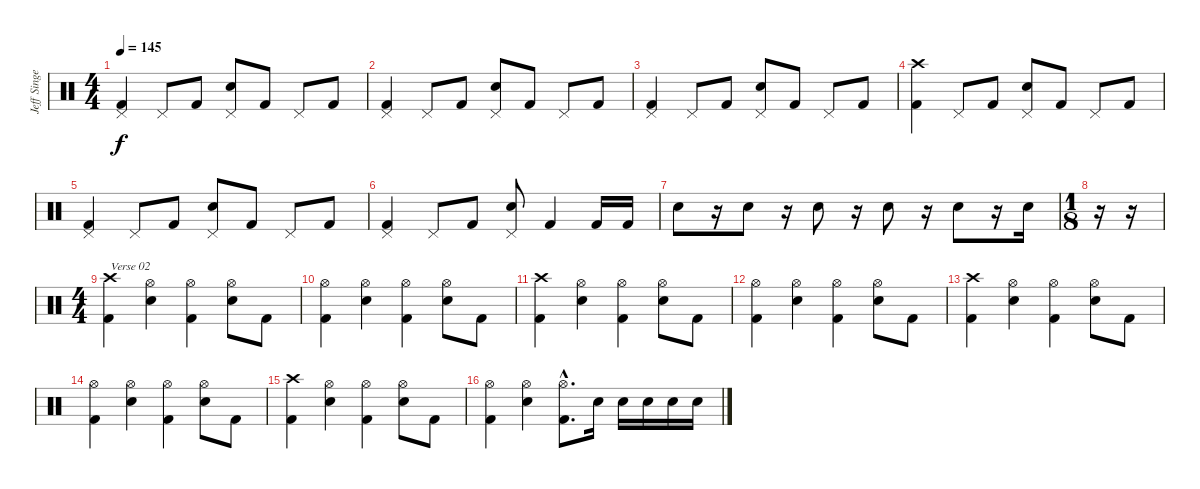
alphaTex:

\track ("Jeff Singer" "Jeff Singe") {instrument percussion}
\staff {score}
\articulation defaults
\ts (4 4)
\tempo 145
\clef neutral
\ks c
("Pedal Hi-Hat (hit)" "Kick (hit) 2").4{dy f} "Pedal Hi-Hat (hit)".8 "Kick (hit) 2".8 ("Pedal Hi-Hat (hit)" "Electric Snare (hit)").8 "Kick (hit) 2".8 "Pedal Hi-Hat (hit)".8 "Kick (hit) 2".8 |
("Pedal Hi-Hat (hit)" "Kick (hit) 2").4 "Pedal Hi-Hat (hit)".8 "Kick (hit) 2".8 ("Pedal Hi-Hat (hit)" "Electric Snare (hit)").8 "Kick (hit) 2".8 "Pedal Hi-Hat (hit)".8 "Kick (hit) 2".8 |
("Pedal Hi-Hat (hit)" "Kick (hit) 2").4 "Pedal Hi-Hat (hit)".8 "Kick (hit) 2".8 ("Pedal Hi-Hat (hit)" "Electric Snare (hit)").8 "Kick (hit) 2".8 "Pedal Hi-Hat (hit)".8 "Kick (hit) 2".8 |
("Crash high (hit)" "Kick (hit) 2").4 "Pedal Hi-Hat (hit)".8 "Kick (hit) 2".8 ("Pedal Hi-Hat (hit)" "Electric Snare (hit)").8 "Kick (hit) 2".8 "Pedal Hi-Hat (hit)".8 "Kick (hit) 2".8 |
("Pedal Hi-Hat (hit)" "Kick (hit) 2").4 "Pedal Hi-Hat (hit)".8 "Kick (hit) 2".8 ("Pedal Hi-Hat (hit)" "Electric Snare (hit)").8 "Kick (hit) 2".8 "Pedal Hi-Hat (hit)".8 "Kick (hit) 2".8 |
("Pedal Hi-Hat (hit)" "Kick (hit) 2").4 "Pedal Hi-Hat (hit)".8 "Kick (hit) 2".8 ("Pedal Hi-Hat (hit)" "Electric Snare (hit)").8 "Kick (hit) 2".4 "Kick (hit) 2".16 "Kick (hit) 2".16 |
"Snare (hit) 2".8 r.16 "Snare (hit) 2".8 r.16 "Snare (hit) 2".8 r.16 "Snare (hit) 2".8 r.16 "Snare (hit) 2".8 r.16 "Snare (hit) 2".16 |
\ts (1 8)
r.16 r.16 |
\ts (4 4)
("Crash high (hit)" "Kick (hit) 2").4{txt "Verse 02"} ("Hi-Hat (open)" "Electric Snare (hit)").4 ("Hi-Hat (open)" "Kick (hit) 2").4 ("Hi-Hat (open)" "Electric Snare (hit)").8 "Kick (hit) 2".8 |
("Hi-Hat (open)" "Kick (hit) 2").4 ("Hi-Hat (open)" "Electric Snare (hit)").4 ("Hi-Hat (open)" "Kick (hit) 2").4 ("Hi-Hat (open)" "Electric Snare (hit)").8 "Kick (hit) 2".8 |
("Crash high (hit)" "Kick (hit) 2").4 ("Hi-Hat (open)" "Electric Snare (hit)").4 ("Hi-Hat (open)" "Kick (hit) 2").4 ("Hi-Hat (open)" "Electric Snare (hit)").8 "Kick (hit) 2".8 |
("Hi-Hat (open)" "Kick (hit) 2").4 ("Hi-Hat (open)" "Electric Snare (hit)").4 ("Hi-Hat (open)" "Kick (hit) 2").4 ("Hi-Hat (open)" "Electric Snare (hit)").8 "Kick (hit) 2".8 |
("Crash high (hit)" "Kick (hit) 2").4 ("Hi-Hat (open)" "Electric Snare (hit)").4 ("Hi-Hat (open)" "Kick (hit) 2").4 ("Hi-Hat (open)" "Electric Snare (hit)").8 "Kick (hit) 2".8 |
("Hi-Hat (open)" "Kick (hit) 2").4 ("Hi-Hat (open)" "Electric Snare (hit)").4 ("Hi-Hat (open)" "Kick (hit) 2").4 ("Hi-Hat (open)" "Electric Snare (hit)").8 "Kick (hit) 2".8 |
("Crash high (hit)" "Kick (hit) 2").4 ("Hi-Hat (open)" "Electric Snare (hit)").4 ("Hi-Hat (open)" "Kick (hit) 2").4 ("Hi-Hat (open)" "Electric Snare (hit)").8 "Kick (hit) 2".8 |
("Hi-Hat (open)" "Kick (hit) 2").4 ("Hi-Hat (open)" "Electric Snare (hit)").4 ("Hi-Hat (open)"{hac} "Kick (hit) 2"{hac}).8{d} "Electric Snare (hit)".16 "Electric Snare (hit)".16 "Electric Snare (hit)".16 "Electric Snare (hit)".16 "Electric Snare (hit)".16
